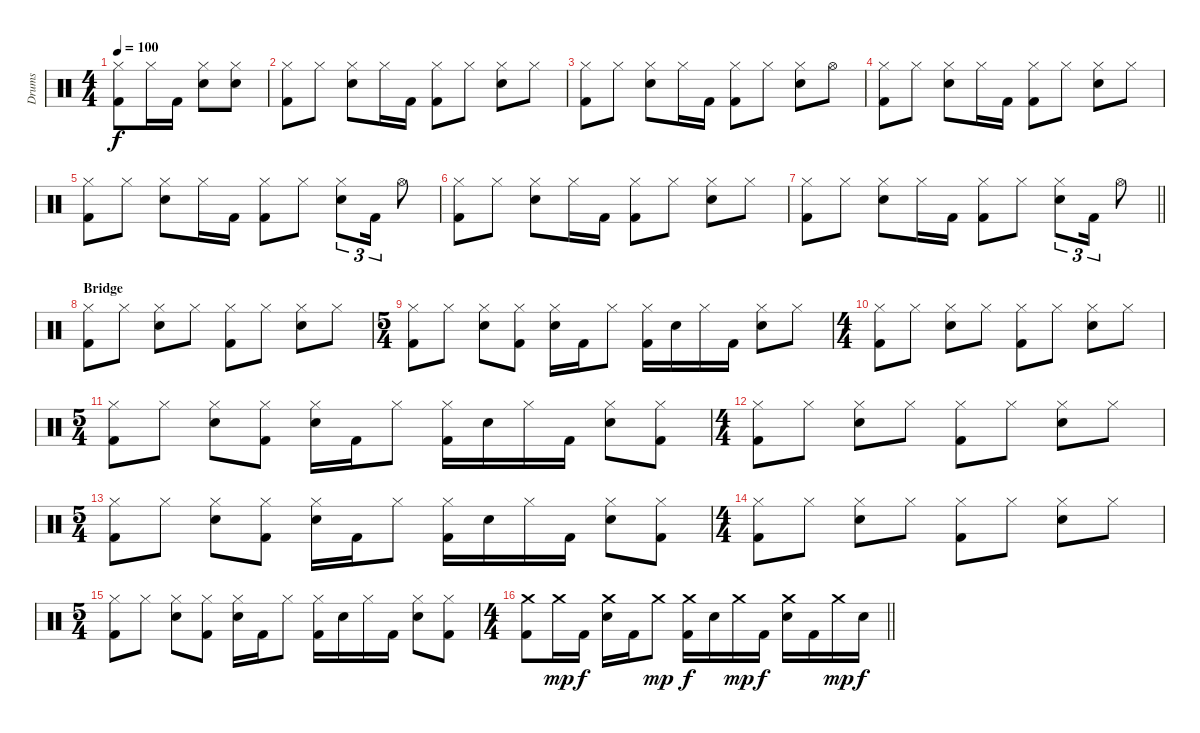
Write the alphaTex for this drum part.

\track ("Drums" "Drums") {instrument percussion}
\staff {score}
\articulation defaults
\ts (4 4)
\tempo 100
\clef neutral
\ks c
("Hi-Hat (closed)" "Kick (hit) 2").8{dy f} "Hi-Hat (closed)".16 "Kick (hit) 2".16 ("Hi-Hat (closed)" "Electric Snare (hit)").8 ("Hi-Hat (closed)" "Electric Snare (hit)").8 |
("Hi-Hat (closed)" "Kick (hit) 2").8 "Hi-Hat (closed)".8 ("Hi-Hat (closed)" "Electric Snare (hit)").8 "Hi-Hat (closed)".16 "Kick (hit) 2".16 ("Hi-Hat (closed)" "Kick (hit) 2").8 "Hi-Hat (closed)".8 ("Hi-Hat (closed)" "Electric Snare (hit)").8 "Hi-Hat (closed)".8 |
("Hi-Hat (closed)" "Kick (hit) 2").8 "Hi-Hat (closed)".8 ("Hi-Hat (closed)" "Electric Snare (hit)").8 "Hi-Hat (closed)".16 "Kick (hit) 2".16 ("Hi-Hat (closed)" "Kick (hit) 2").8 "Hi-Hat (closed)".8 ("Hi-Hat (closed)" "Electric Snare (hit)").8 "Hi-Hat (open)".8 |
("Hi-Hat (closed)" "Kick (hit) 2").8 "Hi-Hat (closed)".8 ("Hi-Hat (closed)" "Electric Snare (hit)").8 "Hi-Hat (closed)".16 "Kick (hit) 2".16 ("Hi-Hat (closed)" "Kick (hit) 2").8 "Hi-Hat (closed)".8 ("Hi-Hat (closed)" "Electric Snare (hit)").8 "Hi-Hat (closed)".8 |
("Hi-Hat (closed)" "Kick (hit) 2").8 "Hi-Hat (closed)".8 ("Hi-Hat (closed)" "Electric Snare (hit)").8 "Hi-Hat (closed)".16 "Kick (hit) 2".16 ("Hi-Hat (closed)" "Kick (hit) 2").8 "Hi-Hat (closed)".8 ("Hi-Hat (closed)" "Electric Snare (hit)").8{tu (3 2)} "Kick (hit) 2".16{tu (3 2)} "Hi-Hat (open)".8 |
("Hi-Hat (closed)" "Kick (hit) 2").8 "Hi-Hat (closed)".8 ("Hi-Hat (closed)" "Electric Snare (hit)").8 "Hi-Hat (closed)".16 "Kick (hit) 2".16 ("Hi-Hat (closed)" "Kick (hit) 2").8 "Hi-Hat (closed)".8 ("Hi-Hat (closed)" "Electric Snare (hit)").8 "Hi-Hat (closed)".8 |
\barLineRight lightlight
("Hi-Hat (closed)" "Kick (hit) 2").8 "Hi-Hat (closed)".8 ("Hi-Hat (closed)" "Electric Snare (hit)").8 "Hi-Hat (closed)".16 "Kick (hit) 2".16 ("Hi-Hat (closed)" "Kick (hit) 2").8 "Hi-Hat (closed)".8 ("Hi-Hat (closed)" "Electric Snare (hit)").8{tu (3 2)} "Kick (hit) 2".16{tu (3 2)} "Hi-Hat (open)".8 |
\section ("" "Bridge")
("Hi-Hat (closed)" "Kick (hit) 2").8 "Hi-Hat (closed)".8 ("Hi-Hat (closed)" "Electric Snare (hit)").8 "Hi-Hat (closed)".8 ("Hi-Hat (closed)" "Kick (hit) 2").8 "Hi-Hat (closed)".8 ("Hi-Hat (closed)" "Electric Snare (hit)").8 "Hi-Hat (closed)".8 |
\ts (5 4)
("Hi-Hat (closed)" "Kick (hit) 2").8 "Hi-Hat (closed)".8 ("Hi-Hat (closed)" "Electric Snare (hit)").8 ("Hi-Hat (closed)" "Kick (hit) 2").8 ("Hi-Hat (closed)" "Electric Snare (hit)").16 "Kick (hit) 2".16 "Hi-Hat (closed)".8 ("Hi-Hat (closed)" "Kick (hit) 2").16 "Electric Snare (hit)".16 "Hi-Hat (closed)".16 "Kick (hit) 2".16 ("Hi-Hat (closed)" "Electric Snare (hit)").8 "Hi-Hat (closed)".8 |
\ts (4 4)
("Hi-Hat (closed)" "Kick (hit) 2").8 "Hi-Hat (closed)".8 ("Hi-Hat (closed)" "Electric Snare (hit)").8 "Hi-Hat (closed)".8 ("Hi-Hat (closed)" "Kick (hit) 2").8 "Hi-Hat (closed)".8 ("Hi-Hat (closed)" "Electric Snare (hit)").8 "Hi-Hat (closed)".8 |
\ts (5 4)
("Hi-Hat (closed)" "Kick (hit) 2").8 "Hi-Hat (closed)".8 ("Hi-Hat (closed)" "Electric Snare (hit)").8 ("Hi-Hat (closed)" "Kick (hit) 2").8 ("Hi-Hat (closed)" "Electric Snare (hit)").16 "Kick (hit) 2".16 "Hi-Hat (closed)".8 ("Hi-Hat (closed)" "Kick (hit) 2").16 "Electric Snare (hit)".16 "Hi-Hat (closed)".16 "Kick (hit) 2".16 ("Hi-Hat (closed)" "Electric Snare (hit)").8 ("Hi-Hat (closed)" "Kick (hit) 2").8 |
\ts (4 4)
("Hi-Hat (closed)" "Kick (hit) 2").8 "Hi-Hat (closed)".8 ("Hi-Hat (closed)" "Electric Snare (hit)").8 "Hi-Hat (closed)".8 ("Hi-Hat (closed)" "Kick (hit) 2").8 "Hi-Hat (closed)".8 ("Hi-Hat (closed)" "Electric Snare (hit)").8 "Hi-Hat (closed)".8 |
\ts (5 4)
("Hi-Hat (closed)" "Kick (hit) 2").8 "Hi-Hat (closed)".8 ("Hi-Hat (closed)" "Electric Snare (hit)").8 ("Hi-Hat (closed)" "Kick (hit) 2").8 ("Hi-Hat (closed)" "Electric Snare (hit)").16 "Kick (hit) 2".16 "Hi-Hat (closed)".8 ("Hi-Hat (closed)" "Kick (hit) 2").16 "Electric Snare (hit)".16 "Hi-Hat (closed)".16 "Kick (hit) 2".16 ("Hi-Hat (closed)" "Electric Snare (hit)").8 ("Hi-Hat (closed)" "Kick (hit) 2").8 |
\ts (4 4)
("Hi-Hat (closed)" "Kick (hit) 2").8 "Hi-Hat (closed)".8 ("Hi-Hat (closed)" "Electric Snare (hit)").8 "Hi-Hat (closed)".8 ("Hi-Hat (closed)" "Kick (hit) 2").8 "Hi-Hat (closed)".8 ("Hi-Hat (closed)" "Electric Snare (hit)").8 "Hi-Hat (closed)".8 |
\ts (5 4)
("Hi-Hat (closed)" "Kick (hit) 2").8 "Hi-Hat (closed)".8 ("Hi-Hat (closed)" "Electric Snare (hit)").8 ("Hi-Hat (closed)" "Kick (hit) 2").8 ("Hi-Hat (closed)" "Electric Snare (hit)").16 "Kick (hit) 2".16 "Hi-Hat (closed)".8 ("Hi-Hat (closed)" "Kick (hit) 2").16 "Electric Snare (hit)".16 "Hi-Hat (closed)".16 "Kick (hit) 2".16 ("Hi-Hat (closed)" "Electric Snare (hit)").8 ("Hi-Hat (closed)" "Kick (hit) 2").8 |
\ts (4 4)
\barLineRight lightlight
("Crash medium (hit)" "Kick (hit) 2").8 "Crash medium (hit)".16{dy mp} "Kick (hit) 2".16{dy f} ("Crash medium (hit)" "Electric Snare (hit)").16 "Kick (hit) 2".16 "Crash medium (hit)".8{dy mp} ("Crash medium (hit)" "Kick (hit) 2").16{dy f} "Electric Snare (hit)".16 "Crash medium (hit)".16{dy mp} "Kick (hit) 2".16{dy f} ("Crash medium (hit)" "Electric Snare (hit)").16 "Kick (hit) 2".16 "Crash medium (hit)".16{dy mp} "Electric Snare (hit)".16{dy f}
